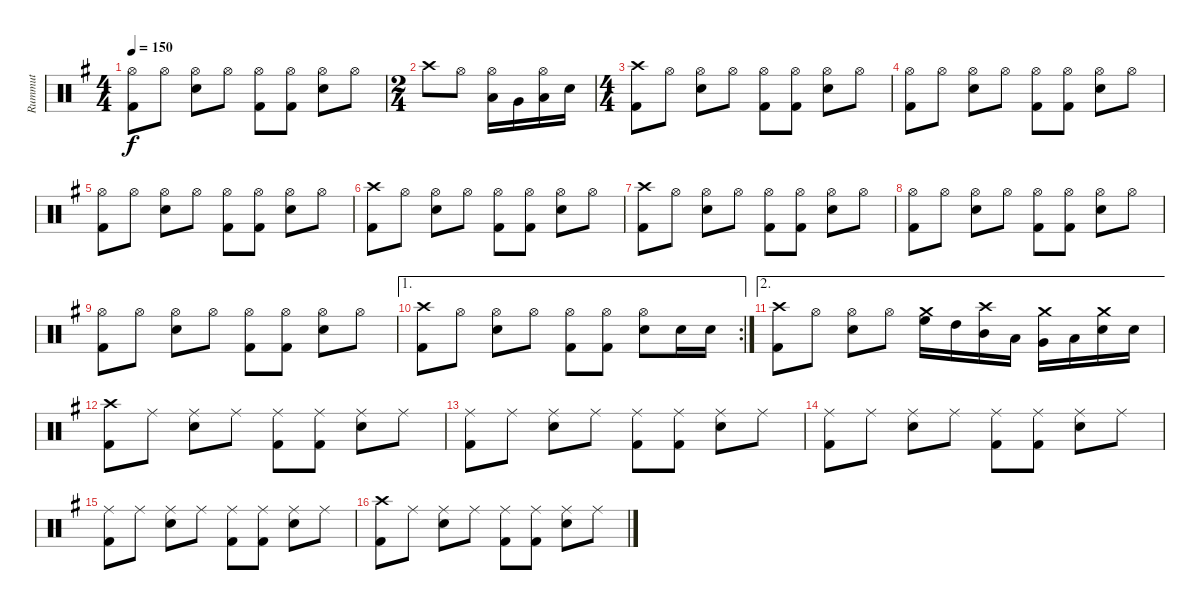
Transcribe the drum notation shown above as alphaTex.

\track ("Rummut" "Rummut") {instrument percussion}
\staff {score}
\articulation defaults
\ts (4 4)
\tempo 150
\clef neutral
\ks g
("Hi-Hat (open)" "Kick (hit) 2").8{dy f} "Hi-Hat (open)".8 ("Hi-Hat (open)" "Electric Snare (hit)").8 "Hi-Hat (open)".8 ("Hi-Hat (open)" "Kick (hit) 2").8 ("Hi-Hat (open)" "Kick (hit) 2").8 ("Hi-Hat (open)" "Electric Snare (hit)").8 "Hi-Hat (open)".8 |
\ts (2 4)
"Crash high (hit)".8 "Hi-Hat (open)".8 ("Hi-Hat (open)" "Low Tom (hit)").16 "Very Low Tom (hit)".16 ("Hi-Hat (open)" "Low Floor Tom (hit)").16 "Electric Snare (hit)".16 |
\ts (4 4)
("Crash high (hit)" "Kick (hit) 2").8 "Hi-Hat (open)".8 ("Hi-Hat (open)" "Electric Snare (hit)").8 "Hi-Hat (open)".8 ("Hi-Hat (open)" "Kick (hit) 2").8 ("Hi-Hat (open)" "Kick (hit) 2").8 ("Hi-Hat (open)" "Electric Snare (hit)").8 "Hi-Hat (open)".8 |
("Hi-Hat (open)" "Kick (hit) 2").8 "Hi-Hat (open)".8 ("Hi-Hat (open)" "Electric Snare (hit)").8 "Hi-Hat (open)".8 ("Hi-Hat (open)" "Kick (hit) 2").8 ("Hi-Hat (open)" "Kick (hit) 2").8 ("Hi-Hat (open)" "Electric Snare (hit)").8 "Hi-Hat (open)".8 |
("Hi-Hat (open)" "Kick (hit) 2").8 "Hi-Hat (open)".8 ("Hi-Hat (open)" "Electric Snare (hit)").8 "Hi-Hat (open)".8 ("Hi-Hat (open)" "Kick (hit) 2").8 ("Hi-Hat (open)" "Kick (hit) 2").8 ("Hi-Hat (open)" "Electric Snare (hit)").8 "Hi-Hat (open)".8 |
("Crash high (hit)" "Kick (hit) 2").8 "Hi-Hat (open)".8 ("Hi-Hat (open)" "Electric Snare (hit)").8 "Hi-Hat (open)".8 ("Hi-Hat (open)" "Kick (hit) 2").8 ("Hi-Hat (open)" "Kick (hit) 2").8 ("Hi-Hat (open)" "Electric Snare (hit)").8 "Hi-Hat (open)".8 |
("Crash high (hit)" "Kick (hit) 2").8 "Hi-Hat (open)".8 ("Hi-Hat (open)" "Electric Snare (hit)").8 "Hi-Hat (open)".8 ("Hi-Hat (open)" "Kick (hit) 2").8 ("Hi-Hat (open)" "Kick (hit) 2").8 ("Hi-Hat (open)" "Electric Snare (hit)").8 "Hi-Hat (open)".8 |
("Hi-Hat (open)" "Kick (hit) 2").8 "Hi-Hat (open)".8 ("Hi-Hat (open)" "Electric Snare (hit)").8 "Hi-Hat (open)".8 ("Hi-Hat (open)" "Kick (hit) 2").8 ("Hi-Hat (open)" "Kick (hit) 2").8 ("Hi-Hat (open)" "Electric Snare (hit)").8 "Hi-Hat (open)".8 |
("Hi-Hat (open)" "Kick (hit) 2").8 "Hi-Hat (open)".8 ("Hi-Hat (open)" "Electric Snare (hit)").8 "Hi-Hat (open)".8 ("Hi-Hat (open)" "Kick (hit) 2").8 ("Hi-Hat (open)" "Kick (hit) 2").8 ("Hi-Hat (open)" "Electric Snare (hit)").8 "Hi-Hat (open)".8 |
\ae 1
\rc 2
("Crash high (hit)" "Kick (hit) 2").8 "Hi-Hat (open)".8 ("Hi-Hat (open)" "Electric Snare (hit)").8 "Hi-Hat (open)".8 ("Hi-Hat (open)" "Kick (hit) 2").8 ("Hi-Hat (open)" "Kick (hit) 2").8 ("Hi-Hat (open)" "Electric Snare (hit)").8 "Electric Snare (hit)".16 "Electric Snare (hit)".16 |
\ae 2
("Crash high (hit)" "Kick (hit) 2").8 "Hi-Hat (open)".8 ("Hi-Hat (open)" "Electric Snare (hit)").8 "Hi-Hat (open)".8 ("Crash medium (hit)" "High Floor Tom (hit)").16 "High Tom (hit)".16 ("Crash high (hit)" "Mid Tom (hit)").16 "Low Tom (hit)".16 ("Crash medium (hit)" "Very Low Tom (hit)").16 "Low Floor Tom (hit)".16 ("Crash medium (hit)" "Electric Snare (hit)").16 "Electric Snare (hit)".16 |
("Crash high (hit)" "Kick (hit) 2").8 "Ride (middle)".8 ("Ride (middle)" "Electric Snare (hit)").8 "Ride (middle)".8 ("Ride (middle)" "Kick (hit) 2").8 ("Ride (middle)" "Kick (hit) 2").8 ("Ride (middle)" "Electric Snare (hit)").8 "Ride (middle)".8 |
("Ride (middle)" "Kick (hit) 2").8 "Ride (middle)".8 ("Ride (middle)" "Electric Snare (hit)").8 "Ride (middle)".8 ("Ride (middle)" "Kick (hit) 2").8 ("Ride (middle)" "Kick (hit) 2").8 ("Ride (middle)" "Electric Snare (hit)").8 "Ride (middle)".8 |
("Ride (middle)" "Kick (hit) 2").8 "Ride (middle)".8 ("Ride (middle)" "Electric Snare (hit)").8 "Ride (middle)".8 ("Ride (middle)" "Kick (hit) 2").8 ("Ride (middle)" "Kick (hit) 2").8 ("Ride (middle)" "Electric Snare (hit)").8 "Ride (middle)".8 |
("Ride (middle)" "Kick (hit) 2").8 "Ride (middle)".8 ("Ride (middle)" "Electric Snare (hit)").8 "Ride (middle)".8 ("Ride (middle)" "Kick (hit) 2").8 ("Ride (middle)" "Kick (hit) 2").8 ("Ride (middle)" "Electric Snare (hit)").8 "Ride (middle)".8 |
("Crash high (hit)" "Kick (hit) 2").8 "Ride (middle)".8 ("Ride (middle)" "Electric Snare (hit)").8 "Ride (middle)".8 ("Ride (middle)" "Kick (hit) 2").8 ("Ride (middle)" "Kick (hit) 2").8 ("Ride (middle)" "Electric Snare (hit)").8 "Ride (middle)".8
